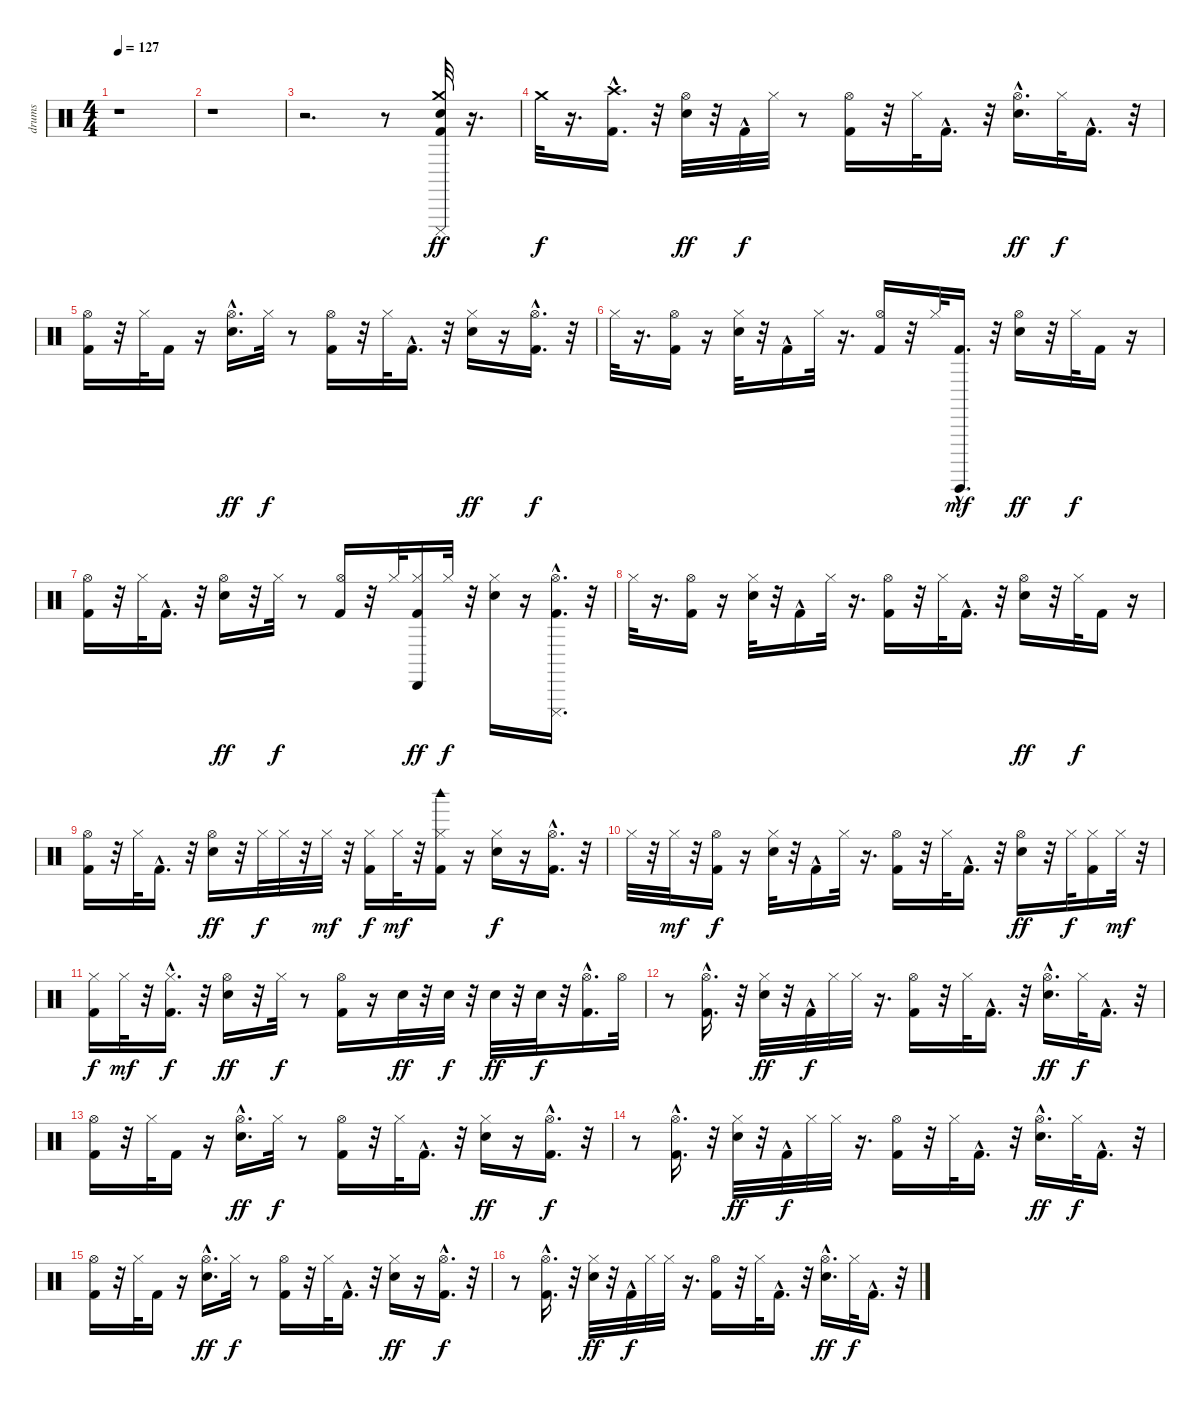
\track ("drums" "drums") {instrument percussion}
\staff {score}
\articulation defaults
\ts (4 4)
\tempo 127
\clef neutral
\ks c
r.1{dy ff} |
r.1 |
r.2{d} r.8 ("Kick (hit) 2" "Electric Snare (hit)" "Crash medium (hit)" "Cuica (mute)").32{balance 8} r.16{d} |
"Crash medium (hit)".32{dy f} r.16{d} ("Kick (hit) 2"{hac} "Crash high (hit)").16{d} r.32 ("Electric Snare (hit)" "Hi-Hat (open)").32{dy ff} r.32 "Kick (hit) 2"{hac}.32{dy f} "Hi-Hat (closed)".32 r.8 ("Kick (hit) 2" "Hi-Hat (open)").16 r.32 "Hi-Hat (closed)".32 "Kick (hit) 2"{hac}.16{d} r.32 ("Electric Snare (hit)"{hac} "Hi-Hat (open)").16{d dy ff} "Hi-Hat (closed)".32{dy f} "Kick (hit) 2"{hac}.16{d} r.32 |
("Kick (hit) 2" "Hi-Hat (open)").16 r.32 "Hi-Hat (closed)".32 "Kick (hit) 2".16 r.16 ("Electric Snare (hit)"{hac} "Hi-Hat (open)").16{d dy ff} "Hi-Hat (closed)".32{dy f} r.8 ("Kick (hit) 2" "Hi-Hat (open)").16 r.32 "Hi-Hat (closed)".32 "Kick (hit) 2"{hac}.16{d} r.32 ("Electric Snare (hit)" "Hi-Hat (closed)").16{dy ff} r.16 ("Kick (hit) 2"{hac} "Hi-Hat (open)").16{d dy f} r.32 |
"Hi-Hat (closed)".32 r.16{d} ("Kick (hit) 2" "Hi-Hat (open)").16 r.16 ("Electric Snare (hit)" "Hi-Hat (closed)").32 r.32 "Kick (hit) 2"{hac}.16 "Hi-Hat (closed)".32 r.16{d} ("Kick (hit) 2" "Hi-Hat (open)").16 r.32 "Hi-Hat (closed)".32 ("Kick (hit) 2"{hac} "Guiro (hit)").16{d dy mf} r.32 ("Electric Snare (hit)" "Hi-Hat (open)").16{dy ff} r.32 "Hi-Hat (closed)".32{dy f} "Kick (hit) 2".16 r.16 |
("Kick (hit) 2" "Hi-Hat (open)").16 r.32 "Hi-Hat (closed)".32 "Kick (hit) 2"{hac}.16{d} r.32 ("Electric Snare (hit)" "Hi-Hat (open)").16{dy ff} r.32 "Hi-Hat (closed)".32{dy f} r.8 ("Kick (hit) 2" "Hi-Hat (open)").16 r.32 "Hi-Hat (closed)".32 ("Kick (hit) 2" "Hi-Hat (closed)" "Cabasa (hit)").16{dy ff} "Hi-Hat (closed)".32{dy f} r.32 ("Electric Snare (hit)" "Hi-Hat (closed)").16 r.16 ("Kick (hit) 2"{hac} "Hi-Hat (open)" "Cuica (mute)").16{d} r.32 |
"Hi-Hat (closed)".32 r.16{d} ("Kick (hit) 2" "Hi-Hat (open)").16 r.16 ("Electric Snare (hit)" "Hi-Hat (closed)").32 r.32 "Kick (hit) 2"{hac}.16 "Hi-Hat (closed)".32 r.16{d} ("Kick (hit) 2" "Hi-Hat (open)").16 r.32 "Hi-Hat (closed)".32 "Kick (hit) 2"{hac}.16{d} r.32 ("Electric Snare (hit)" "Hi-Hat (open)").16{dy ff} r.32 "Hi-Hat (closed)".32{dy f} "Kick (hit) 2".16 r.16 |
("Kick (hit) 2" "Hi-Hat (open)").16 r.32 "Hi-Hat (closed)".32 "Kick (hit) 2"{hac}.16{d} r.32 ("Electric Snare (hit)" "Hi-Hat (open)").16{dy ff} r.32 "Hi-Hat (closed)".32{dy f} "Hi-Hat (closed)".32 r.32 "Hi-Hat (closed)".32{dy mf} r.32 ("Kick (hit) 2" "Hi-Hat (closed)").16{dy f} "Hi-Hat (closed)".32{dy mf} r.32 ("Kick (hit) 2" "Hi-Hat (closed)" "Woodblock high (hit)").16 r.16 ("Electric Snare (hit)" "Hi-Hat (closed)").16{dy f} r.16 ("Kick (hit) 2"{hac} "Hi-Hat (open)").16{d} r.32 |
"Hi-Hat (closed)".32 r.32 "Hi-Hat (closed)".32{dy mf} r.32 ("Kick (hit) 2" "Hi-Hat (open)").16{dy f} r.16 ("Electric Snare (hit)" "Hi-Hat (closed)").32 r.32 "Kick (hit) 2"{hac}.16 "Hi-Hat (closed)".32 r.16{d} ("Kick (hit) 2" "Hi-Hat (open)").16 r.32 "Hi-Hat (closed)".32 "Kick (hit) 2"{hac}.16{d} r.32 ("Electric Snare (hit)" "Hi-Hat (open)").16{dy ff} r.32 "Hi-Hat (closed)".32{dy f} ("Kick (hit) 2" "Hi-Hat (closed)").16 "Hi-Hat (closed)".32{dy mf} r.32 |
("Kick (hit) 2" "Hi-Hat (closed)").16{dy f} "Hi-Hat (closed)".32{dy mf} r.32 ("Kick (hit) 2"{hac} "Hi-Hat (closed)").16{d dy f} r.32 ("Electric Snare (hit)" "Hi-Hat (open)").16{dy ff} r.32 "Hi-Hat (closed)".32{dy f} r.8 ("Kick (hit) 2" "Hi-Hat (open)").16 r.16 "Electric Snare (hit)".32{dy ff} r.32 "Electric Snare (hit)".32{dy f} r.32 "Electric Snare (hit)".32{dy ff} r.32 "Electric Snare (hit)".32{dy f} r.32 ("Kick (hit) 2"{hac} "Hi-Hat (open)").16{d} "Hi-Hat (open)".32 |
r.8 ("Kick (hit) 2"{hac} "Hi-Hat (open)").16{d} r.32 ("Electric Snare (hit)" "Hi-Hat (closed)").32{dy ff} r.32 "Kick (hit) 2"{hac}.32{dy f} "Hi-Hat (closed)".32 "Hi-Hat (closed)".32 r.16{d} ("Kick (hit) 2" "Hi-Hat (open)").16 r.32 "Hi-Hat (closed)".32 "Kick (hit) 2"{hac}.16{d} r.32 ("Electric Snare (hit)"{hac} "Hi-Hat (open)").16{d dy ff} "Hi-Hat (closed)".32{dy f} "Kick (hit) 2"{hac}.16{d} r.32 |
("Kick (hit) 2" "Hi-Hat (open)").16 r.32 "Hi-Hat (closed)".32 "Kick (hit) 2".16 r.16 ("Electric Snare (hit)"{hac} "Hi-Hat (open)").16{d dy ff} "Hi-Hat (closed)".32{dy f} r.8 ("Kick (hit) 2" "Hi-Hat (open)").16 r.32 "Hi-Hat (closed)".32 "Kick (hit) 2"{hac}.16{d} r.32 ("Electric Snare (hit)" "Hi-Hat (closed)").16{dy ff} r.16 ("Kick (hit) 2"{hac} "Hi-Hat (open)").16{d dy f} r.32 |
r.8 ("Kick (hit) 2"{hac} "Hi-Hat (open)").16{d} r.32 ("Electric Snare (hit)" "Hi-Hat (closed)").32{dy ff} r.32 "Kick (hit) 2"{hac}.32{dy f} "Hi-Hat (closed)".32 "Hi-Hat (closed)".32 r.16{d} ("Kick (hit) 2" "Hi-Hat (open)").16 r.32 "Hi-Hat (closed)".32 "Kick (hit) 2"{hac}.16{d} r.32 ("Electric Snare (hit)"{hac} "Hi-Hat (open)").16{d dy ff} "Hi-Hat (closed)".32{dy f} "Kick (hit) 2"{hac}.16{d} r.32 |
("Kick (hit) 2" "Hi-Hat (open)").16 r.32 "Hi-Hat (closed)".32 "Kick (hit) 2".16 r.16 ("Electric Snare (hit)"{hac} "Hi-Hat (open)").16{d dy ff} "Hi-Hat (closed)".32{dy f} r.8 ("Kick (hit) 2" "Hi-Hat (open)").16 r.32 "Hi-Hat (closed)".32 "Kick (hit) 2"{hac}.16{d} r.32 ("Electric Snare (hit)" "Hi-Hat (closed)").16{dy ff} r.16 ("Kick (hit) 2"{hac} "Hi-Hat (open)").16{d dy f} r.32 |
r.8 ("Kick (hit) 2"{hac} "Hi-Hat (open)").16{d} r.32 ("Electric Snare (hit)" "Hi-Hat (closed)").32{dy ff} r.32 "Kick (hit) 2"{hac}.32{dy f} "Hi-Hat (closed)".32 "Hi-Hat (closed)".32 r.16{d} ("Kick (hit) 2" "Hi-Hat (open)").16 r.32 "Hi-Hat (closed)".32 "Kick (hit) 2"{hac}.16{d} r.32 ("Electric Snare (hit)"{hac} "Hi-Hat (open)").16{d dy ff} "Hi-Hat (closed)".32{dy f} "Kick (hit) 2"{hac}.16{d} r.32
